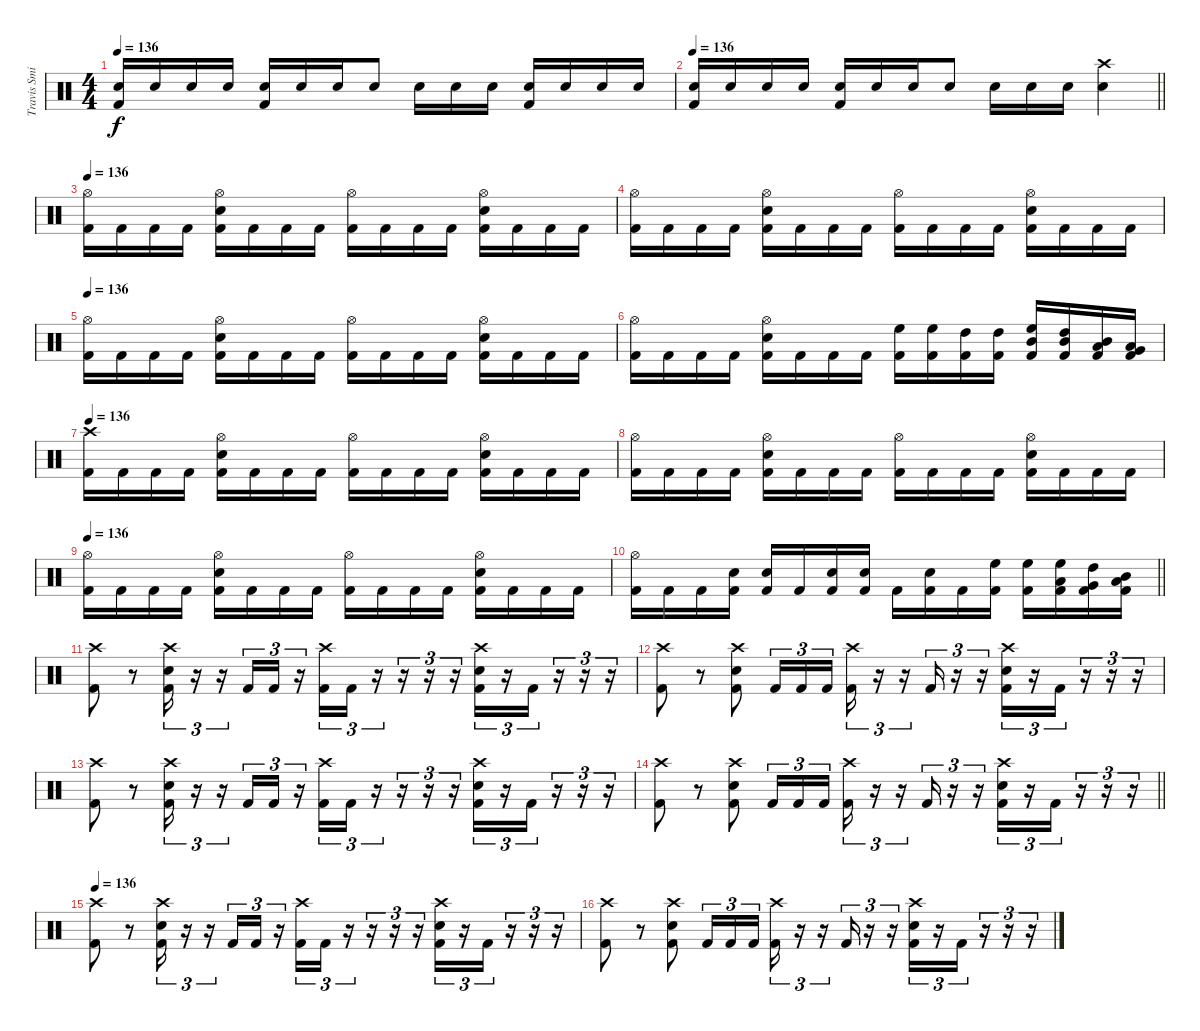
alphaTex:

\track ("Travis Smith" "Travis Smi") {instrument percussion}
\staff {score}
\articulation defaults
\ts (4 4)
\tempo 136
\clef neutral
\ks c
("Kick (hit) 2" "Snare (hit) 2").16{dy f} "Snare (hit) 2".16 "Snare (hit) 2".16 "Snare (hit) 2".16 ("Kick (hit) 2" "Snare (hit) 2").16 "Snare (hit) 2".16 "Snare (hit) 2".16 "Snare (hit) 2".8 "Snare (hit) 2".16 "Snare (hit) 2".16 "Snare (hit) 2".16 ("Kick (hit) 2" "Snare (hit) 2").16 "Snare (hit) 2".16 "Snare (hit) 2".16 "Snare (hit) 2".16 |
\tempo 136
\barLineRight lightlight
("Kick (hit) 2" "Snare (hit) 2").16 "Snare (hit) 2".16 "Snare (hit) 2".16 "Snare (hit) 2".16 ("Kick (hit) 2" "Snare (hit) 2").16 "Snare (hit) 2".16 "Snare (hit) 2".16 "Snare (hit) 2".8 "Snare (hit) 2".16 "Snare (hit) 2".16 "Snare (hit) 2".16 ("Crash high (hit)" "Snare (hit) 2").4 |
\section ("" "")
\tempo 136
("Hi-Hat (open)" "Kick (hit) 2").16 "Kick (hit) 2".16 "Kick (hit) 2".16 "Kick (hit) 2".16 ("Hi-Hat (open)" "Snare (hit) 2" "Kick (hit) 2").16 "Kick (hit) 2".16 "Kick (hit) 2".16 "Kick (hit) 2".16 ("Hi-Hat (open)" "Kick (hit) 2").16 "Kick (hit) 2".16 "Kick (hit) 2".16 "Kick (hit) 2".16 ("Hi-Hat (open)" "Snare (hit) 2" "Kick (hit) 2").16 "Kick (hit) 2".16 "Kick (hit) 2".16 "Kick (hit) 2".16 |
("Hi-Hat (open)" "Kick (hit) 2").16 "Kick (hit) 2".16 "Kick (hit) 2".16 "Kick (hit) 2".16 ("Hi-Hat (open)" "Snare (hit) 2" "Kick (hit) 2").16 "Kick (hit) 2".16 "Kick (hit) 2".16 "Kick (hit) 2".16 ("Hi-Hat (open)" "Kick (hit) 2").16 "Kick (hit) 2".16 "Kick (hit) 2".16 "Kick (hit) 2".16 ("Hi-Hat (open)" "Snare (hit) 2" "Kick (hit) 2").16 "Kick (hit) 2".16 "Kick (hit) 2".16 "Kick (hit) 2".16 |
\tempo 136
("Hi-Hat (open)" "Kick (hit) 2").16 "Kick (hit) 2".16 "Kick (hit) 2".16 "Kick (hit) 2".16 ("Hi-Hat (open)" "Snare (hit) 2" "Kick (hit) 2").16 "Kick (hit) 2".16 "Kick (hit) 2".16 "Kick (hit) 2".16 ("Hi-Hat (open)" "Kick (hit) 2").16 "Kick (hit) 2".16 "Kick (hit) 2".16 "Kick (hit) 2".16 ("Hi-Hat (open)" "Snare (hit) 2" "Kick (hit) 2").16 "Kick (hit) 2".16 "Kick (hit) 2".16 "Kick (hit) 2".16 |
("Hi-Hat (open)" "Kick (hit) 2").16 "Kick (hit) 2".16 "Kick (hit) 2".16 "Kick (hit) 2".16 ("Hi-Hat (open)" "Snare (hit) 2" "Kick (hit) 2").16 "Kick (hit) 2".16 "Kick (hit) 2".16 "Kick (hit) 2".16 ("High Floor Tom (hit)" "Kick (hit) 2").16 ("High Floor Tom (hit)" "Kick (hit) 2").16 ("High Tom (hit)" "Kick (hit) 2").16 ("High Tom (hit)" "Kick (hit) 2").16 ("Mid Tom (hit)" "High Floor Tom (hit)" "Kick (hit) 2").16 ("Mid Tom (hit)" "High Tom (hit)" "Kick (hit) 2").16 ("Low Tom (hit)" "Mid Tom (hit)" "Kick (hit) 2").16 ("Very Low Tom (hit)" "Low Tom (hit)" "Kick (hit) 2").16 |
\tempo 136
("Crash high (hit)" "Kick (hit) 2").16 "Kick (hit) 2".16 "Kick (hit) 2".16 "Kick (hit) 2".16 ("Hi-Hat (open)" "Snare (hit) 2" "Kick (hit) 2").16 "Kick (hit) 2".16 "Kick (hit) 2".16 "Kick (hit) 2".16 ("Hi-Hat (open)" "Kick (hit) 2").16 "Kick (hit) 2".16 "Kick (hit) 2".16 "Kick (hit) 2".16 ("Hi-Hat (open)" "Snare (hit) 2" "Kick (hit) 2").16 "Kick (hit) 2".16 "Kick (hit) 2".16 "Kick (hit) 2".16 |
("Hi-Hat (open)" "Kick (hit) 2").16 "Kick (hit) 2".16 "Kick (hit) 2".16 "Kick (hit) 2".16 ("Hi-Hat (open)" "Snare (hit) 2" "Kick (hit) 2").16 "Kick (hit) 2".16 "Kick (hit) 2".16 "Kick (hit) 2".16 ("Hi-Hat (open)" "Kick (hit) 2").16 "Kick (hit) 2".16 "Kick (hit) 2".16 "Kick (hit) 2".16 ("Hi-Hat (open)" "Snare (hit) 2" "Kick (hit) 2").16 "Kick (hit) 2".16 "Kick (hit) 2".16 "Kick (hit) 2".16 |
\tempo 136
("Hi-Hat (open)" "Kick (hit) 2").16 "Kick (hit) 2".16 "Kick (hit) 2".16 "Kick (hit) 2".16 ("Hi-Hat (open)" "Snare (hit) 2" "Kick (hit) 2").16 "Kick (hit) 2".16 "Kick (hit) 2".16 "Kick (hit) 2".16 ("Hi-Hat (open)" "Kick (hit) 2").16 "Kick (hit) 2".16 "Kick (hit) 2".16 "Kick (hit) 2".16 ("Hi-Hat (open)" "Snare (hit) 2" "Kick (hit) 2").16 "Kick (hit) 2".16 "Kick (hit) 2".16 "Kick (hit) 2".16 |
\barLineRight lightlight
("Hi-Hat (open)" "Kick (hit) 2").16 "Kick (hit) 2".16 "Kick (hit) 2".16 ("Snare (hit) 2" "Kick (hit) 2").16 ("Snare (hit) 2" "Kick (hit) 2").16 "Kick (hit) 2".16 ("Snare (hit) 2" "Kick (hit) 2").16 ("Snare (hit) 2" "Kick (hit) 2").16 "Kick (hit) 2".16 ("Snare (hit) 2" "Kick (hit) 2").16 "Kick (hit) 2".16 ("High Floor Tom (hit)" "Kick (hit) 2").16 ("High Floor Tom (hit)" "Kick (hit) 2").16 ("Low Tom (hit)" "High Floor Tom (hit)" "Kick (hit) 2").16 ("Very Low Tom (hit)" "High Tom (hit)" "Kick (hit) 2").16 ("Low Floor Tom (hit)" "Mid Tom (hit)" "Kick (hit) 2").16 |
\section ("" "")
("Crash high (hit)" "Kick (hit) 2").8 r.8 ("Crash high (hit)" "Snare (hit) 2" "Kick (hit) 2").16{tu (3 2)} r.16{tu (3 2)} r.16{tu (3 2)} "Kick (hit) 2".16{tu (3 2)} "Kick (hit) 2".16{tu (3 2)} r.16{tu (3 2)} ("Crash high (hit)" "Kick (hit) 2").16{tu (3 2)} "Kick (hit) 2".16{tu (3 2)} r.16{tu (3 2)} r.16{tu (3 2)} r.16{tu (3 2)} r.16{tu (3 2)} ("Crash high (hit)" "Snare (hit) 2" "Kick (hit) 2").16{tu (3 2)} r.16{tu (3 2)} "Kick (hit) 2".16{tu (3 2)} r.16{tu (3 2)} r.16{tu (3 2)} r.16{tu (3 2)} |
("Crash high (hit)" "Kick (hit) 2").8 r.8 ("Crash high (hit)" "Snare (hit) 2" "Kick (hit) 2").8 "Kick (hit) 2".16{tu (3 2)} "Kick (hit) 2".16{tu (3 2)} "Kick (hit) 2".16{tu (3 2)} ("Crash high (hit)" "Kick (hit) 2").16{tu (3 2)} r.16{tu (3 2)} r.16{tu (3 2)} "Kick (hit) 2".16{tu (3 2)} r.16{tu (3 2)} r.16{tu (3 2)} ("Crash high (hit)" "Snare (hit) 2" "Kick (hit) 2").16{tu (3 2)} r.16{tu (3 2)} "Kick (hit) 2".16{tu (3 2)} r.16{tu (3 2)} r.16{tu (3 2)} r.16{tu (3 2)} |
("Crash high (hit)" "Kick (hit) 2").8 r.8 ("Crash high (hit)" "Snare (hit) 2" "Kick (hit) 2").16{tu (3 2)} r.16{tu (3 2)} r.16{tu (3 2)} "Kick (hit) 2".16{tu (3 2)} "Kick (hit) 2".16{tu (3 2)} r.16{tu (3 2)} ("Crash high (hit)" "Kick (hit) 2").16{tu (3 2)} "Kick (hit) 2".16{tu (3 2)} r.16{tu (3 2)} r.16{tu (3 2)} r.16{tu (3 2)} r.16{tu (3 2)} ("Crash high (hit)" "Snare (hit) 2" "Kick (hit) 2").16{tu (3 2)} r.16{tu (3 2)} "Kick (hit) 2".16{tu (3 2)} r.16{tu (3 2)} r.16{tu (3 2)} r.16{tu (3 2)} |
\barLineRight lightlight
("Crash high (hit)" "Kick (hit) 2").8 r.8 ("Crash high (hit)" "Snare (hit) 2" "Kick (hit) 2").8 "Kick (hit) 2".16{tu (3 2)} "Kick (hit) 2".16{tu (3 2)} "Kick (hit) 2".16{tu (3 2)} ("Crash high (hit)" "Kick (hit) 2").16{tu (3 2)} r.16{tu (3 2)} r.16{tu (3 2)} "Kick (hit) 2".16{tu (3 2)} r.16{tu (3 2)} r.16{tu (3 2)} ("Crash high (hit)" "Snare (hit) 2" "Kick (hit) 2").16{tu (3 2)} r.16{tu (3 2)} "Kick (hit) 2".16{tu (3 2)} r.16{tu (3 2)} r.16{tu (3 2)} r.16{tu (3 2)} |
\section ("" "")
\tempo 136
("Crash high (hit)" "Kick (hit) 2").8 r.8 ("Crash high (hit)" "Snare (hit) 2" "Kick (hit) 2").16{tu (3 2)} r.16{tu (3 2)} r.16{tu (3 2)} "Kick (hit) 2".16{tu (3 2)} "Kick (hit) 2".16{tu (3 2)} r.16{tu (3 2)} ("Crash high (hit)" "Kick (hit) 2").16{tu (3 2)} "Kick (hit) 2".16{tu (3 2)} r.16{tu (3 2)} r.16{tu (3 2)} r.16{tu (3 2)} r.16{tu (3 2)} ("Crash high (hit)" "Snare (hit) 2" "Kick (hit) 2").16{tu (3 2)} r.16{tu (3 2)} "Kick (hit) 2".16{tu (3 2)} r.16{tu (3 2)} r.16{tu (3 2)} r.16{tu (3 2)} |
("Crash high (hit)" "Kick (hit) 2").8 r.8 ("Crash high (hit)" "Snare (hit) 2" "Kick (hit) 2").8 "Kick (hit) 2".16{tu (3 2)} "Kick (hit) 2".16{tu (3 2)} "Kick (hit) 2".16{tu (3 2)} ("Crash high (hit)" "Kick (hit) 2").16{tu (3 2)} r.16{tu (3 2)} r.16{tu (3 2)} "Kick (hit) 2".16{tu (3 2)} r.16{tu (3 2)} r.16{tu (3 2)} ("Crash high (hit)" "Snare (hit) 2" "Kick (hit) 2").16{tu (3 2)} r.16{tu (3 2)} "Kick (hit) 2".16{tu (3 2)} r.16{tu (3 2)} r.16{tu (3 2)} r.16{tu (3 2)}
